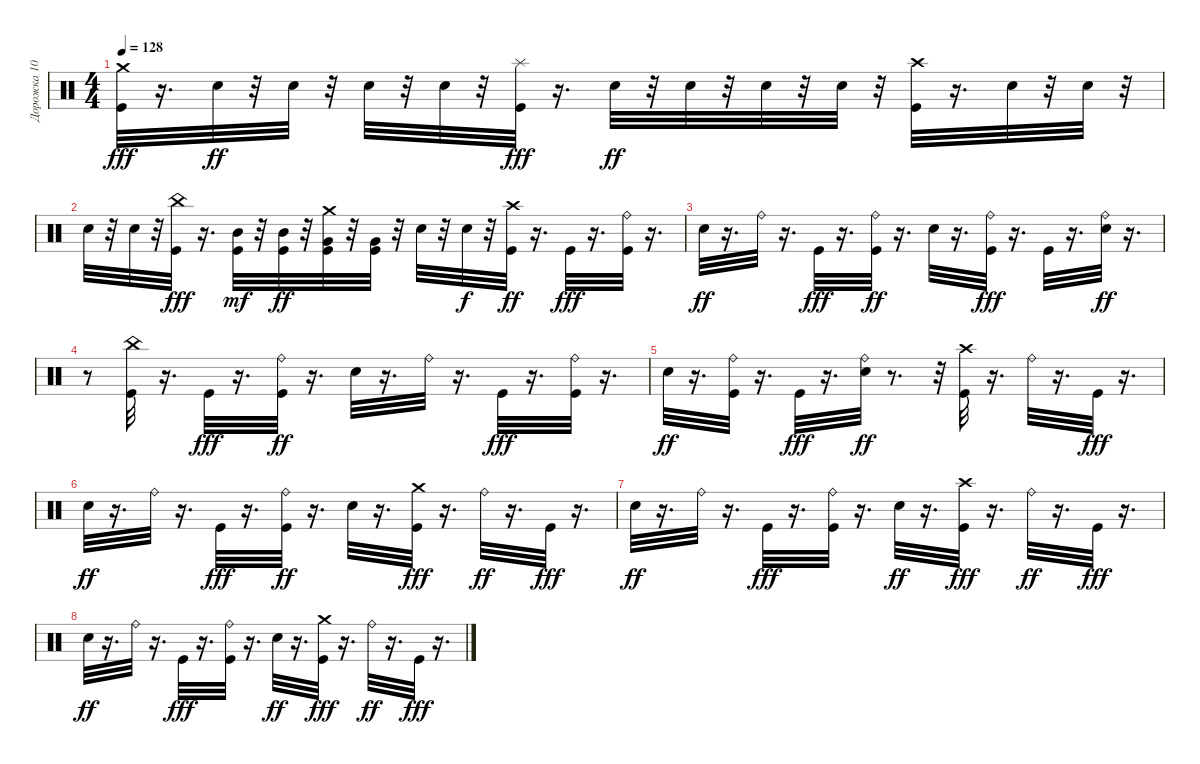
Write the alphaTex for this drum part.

\track ("Дорожка 10" "Дорожка 10") {instrument percussion}
\staff {score}
\articulation defaults
\ts (4 4)
\tempo 128
\clef neutral
\ks c
("Crash medium (hit)" "Kick (hit)").32{dy fff} r.16{d} "Electric Snare (hit)".32{dy ff} r.32 "Electric Snare (hit)".32 r.32 "Electric Snare (hit)".32 r.32 "Electric Snare (hit)".32 r.32 ("Splash (hit)" "Kick (hit)").32{dy fff} r.16{d} "Electric Snare (hit)".32{dy ff} r.32 "Electric Snare (hit)".32 r.32 "Electric Snare (hit)".32 r.32 "Electric Snare (hit)".32 r.32 ("Kick (hit)" "Crash high (hit)").32 r.16{d} "Electric Snare (hit)".32 r.32 "Electric Snare (hit)".32 r.32 |
"Electric Snare (hit)".32 r.32 "Electric Snare (hit)".32 r.32 ("China (hit)" "Kick (hit)").32{dy fff} r.16{d} ("Kick (hit)" "Mid Tom (hit)").32{dy mf} r.32 ("Mid Tom (hit)" "Kick (hit)").32{dy ff} r.32 ("Very Low Tom (hit)" "Kick (hit)" "Crash medium (hit)").32 r.32 ("Very Low Tom (hit)" "Kick (hit)").32 r.32 "Electric Snare (hit)".32 r.32 "Electric Snare (hit)".32{dy f} r.32 ("Kick (hit)" "Crash high (hit)").32{dy ff} r.16{d} "Kick (hit)".32{dy fff} r.16{d} ("Ride (bell)" "Kick (hit)").32 r.16{d} |
"Electric Snare (hit)".32{dy ff} r.16{d} "Ride (bell)".32 r.16{d} "Kick (hit)".32{dy fff} r.16{d} ("Kick (hit)" "Ride (bell)").32{dy ff} r.16{d} "Electric Snare (hit)".32 r.16{d} ("Ride (bell)" "Kick (hit)").32{dy fff} r.16{d} "Kick (hit)".32 r.16{d} ("Electric Snare (hit)" "Ride (bell)").32{dy ff} r.16{d} |
r.8 ("Kick (hit)" "China (hit)").32 r.16{d} "Kick (hit)".32{dy fff} r.16{d} ("Kick (hit)" "Ride (bell)").32{dy ff} r.16{d} "Electric Snare (hit)".32 r.16{d} "Ride (bell)".32 r.16{d} "Kick (hit)".32{dy fff} r.16{d} ("Ride (bell)" "Kick (hit)").32 r.16{d} |
"Electric Snare (hit)".32{dy ff} r.16{d} ("Kick (hit)" "Ride (bell)").32 r.16{d} "Kick (hit)".32{dy fff} r.16{d} ("Ride (bell)" "Electric Snare (hit)").32{dy ff} r.8{d} r.32 ("Kick (hit)" "Crash high (hit)").32 r.16{d} "Ride (bell)".32 r.16{d} "Kick (hit)".32{dy fff} r.16{d} |
"Electric Snare (hit)".32{dy ff} r.16{d} "Ride (bell)".32 r.16{d} "Kick (hit)".32{dy fff} r.16{d} ("Kick (hit)" "Ride (bell)").32{dy ff} r.16{d} "Electric Snare (hit)".32 r.16{d} ("Crash medium (hit)" "Kick (hit)").32{dy fff} r.16{d} "Ride (bell)".32{dy ff} r.16{d} "Kick (hit)".32{dy fff} r.16{d} |
"Electric Snare (hit)".32{dy ff} r.16{d} "Ride (bell)".32 r.16{d} "Kick (hit)".32{dy fff} r.16{d} ("Ride (bell)" "Kick (hit)").32 r.16{d} "Electric Snare (hit)".32{dy ff} r.16{d} ("Crash high (hit)" "Kick (hit)").32{dy fff} r.16{d} "Ride (bell)".32{dy ff} r.16{d} "Kick (hit)".32{dy fff} r.16{d} |
"Electric Snare (hit)".32{dy ff} r.16{d} "Ride (bell)".32 r.16{d} "Kick (hit)".32{dy fff} r.16{d} ("Ride (bell)" "Kick (hit)").32 r.16{d} "Electric Snare (hit)".32{dy ff} r.16{d} ("Crash medium (hit)" "Kick (hit)").32{dy fff} r.16{d} "Ride (bell)".32{dy ff} r.16{d} "Kick (hit)".32{dy fff} r.16{d}
